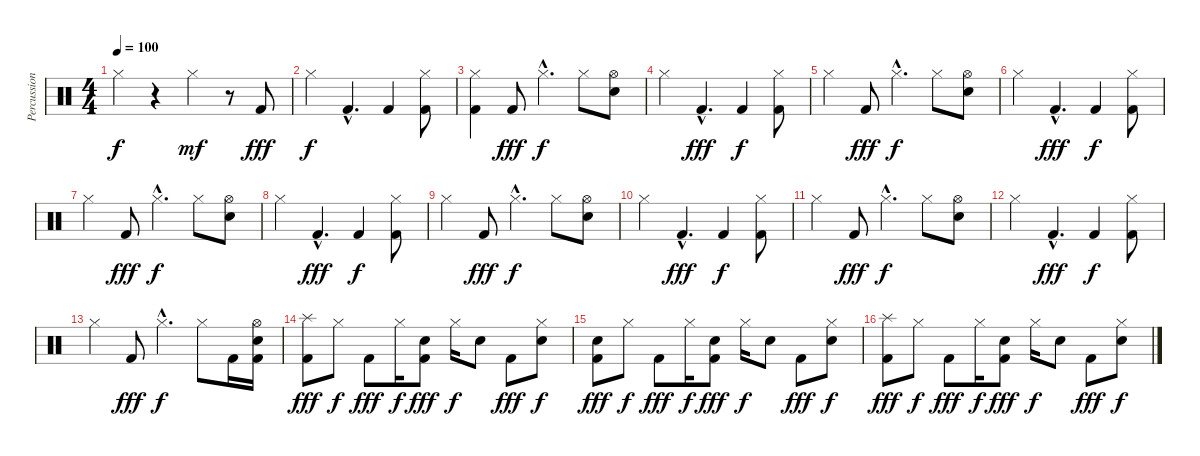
\track ("Percussion" "Percussion") {instrument percussion}
\staff {score}
\articulation defaults
\ts (4 4)
\tempo 100
\clef neutral
\ks c "Hi-Hat (closed)".4{dy f}
r.4 "Hi-Hat (closed)".4{dy mf} r.8 "Kick (hit) 2".8{dy fff} |
"Hi-Hat (closed)".4{dy f} "Kick (hit) 2"{hac}.4{d} "Kick (hit) 2".4 ("Hi-Hat (closed)" "Kick (hit) 2").8 |
("Hi-Hat (closed)" "Kick (hit) 2").4 "Kick (hit) 2".8{dy fff} "Hi-Hat (closed)"{hac}.4{d dy f} "Hi-Hat (closed)".8 ("Hi-Hat (open)" "Electric Snare (hit)").8 |
"Hi-Hat (closed)".4 "Kick (hit) 2"{hac}.4{d dy fff} "Kick (hit) 2".4{dy f} ("Hi-Hat (closed)" "Kick (hit) 2").8 |
"Hi-Hat (closed)".4 "Kick (hit) 2".8{dy fff} "Hi-Hat (closed)"{hac}.4{d dy f} "Hi-Hat (closed)".8 ("Hi-Hat (open)" "Electric Snare (hit)").8 |
"Hi-Hat (closed)".4 "Kick (hit) 2"{hac}.4{d dy fff} "Kick (hit) 2".4{dy f} ("Hi-Hat (closed)" "Kick (hit) 2").8 |
"Hi-Hat (closed)".4 "Kick (hit) 2".8{dy fff} "Hi-Hat (closed)"{hac}.4{d dy f} "Hi-Hat (closed)".8 ("Hi-Hat (open)" "Electric Snare (hit)").8 |
"Hi-Hat (closed)".4 "Kick (hit) 2"{hac}.4{d dy fff} "Kick (hit) 2".4{dy f} ("Hi-Hat (closed)" "Kick (hit) 2").8 |
"Hi-Hat (closed)".4 "Kick (hit) 2".8{dy fff} "Hi-Hat (closed)"{hac}.4{d dy f} "Hi-Hat (closed)".8 ("Hi-Hat (open)" "Electric Snare (hit)").8 |
"Hi-Hat (closed)".4 "Kick (hit) 2"{hac}.4{d dy fff} "Kick (hit) 2".4{dy f} ("Hi-Hat (closed)" "Kick (hit) 2").8 |
"Hi-Hat (closed)".4 "Kick (hit) 2".8{dy fff} "Hi-Hat (closed)"{hac}.4{d dy f} "Hi-Hat (closed)".8 ("Hi-Hat (open)" "Electric Snare (hit)").8 |
"Hi-Hat (closed)".4 "Kick (hit) 2"{hac}.4{d dy fff} "Kick (hit) 2".4{dy f} ("Hi-Hat (closed)" "Kick (hit) 2").8 |
"Hi-Hat (closed)".4 "Kick (hit) 2".8{dy fff} "Hi-Hat (closed)"{hac}.4{d dy f} "Hi-Hat (closed)".8 "Kick (hit) 2".16 ("Hi-Hat (open)" "Electric Snare (hit)" "Kick (hit) 2").16 |
("Splash (hit)" "Kick (hit) 2").8{dy fff} "Hi-Hat (closed)".8{dy f} "Kick (hit) 2".8{dy fff} "Hi-Hat (closed)".16{dy f} ("Electric Snare (hit)" "Kick (hit) 2").8{dy fff} "Hi-Hat (closed)".16{dy f} "Electric Snare (hit)".8 "Kick (hit) 2".8{dy fff} ("Hi-Hat (closed)" "Electric Snare (hit)").8{dy f} |
("Electric Snare (hit)" "Kick (hit) 2").8{dy fff} "Hi-Hat (closed)".8{dy f} "Kick (hit) 2".8{dy fff} "Hi-Hat (closed)".16{dy f} ("Electric Snare (hit)" "Kick (hit) 2").8{dy fff} "Hi-Hat (closed)".16{dy f} "Electric Snare (hit)".8 "Kick (hit) 2".8{dy fff} ("Hi-Hat (closed)" "Electric Snare (hit)").8{dy f} |
("Splash (hit)" "Kick (hit) 2").8{dy fff} "Hi-Hat (closed)".8{dy f} "Kick (hit) 2".8{dy fff} "Hi-Hat (closed)".16{dy f} ("Electric Snare (hit)" "Kick (hit) 2").8{dy fff} "Hi-Hat (closed)".16{dy f} "Electric Snare (hit)".8 "Kick (hit) 2".8{dy fff} ("Hi-Hat (closed)" "Electric Snare (hit)").8{dy f}
